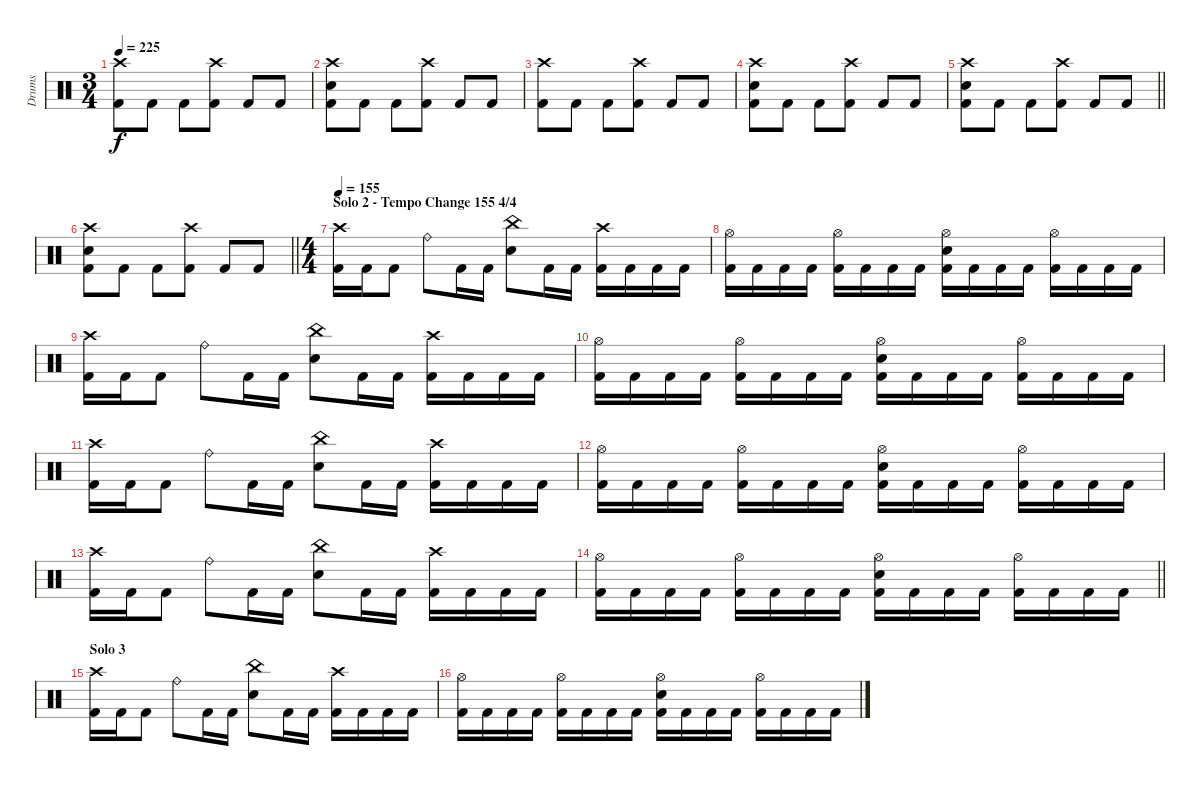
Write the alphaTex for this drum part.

\track ("Drums" "Drums") {instrument percussion}
\staff {score}
\articulation defaults
\ts (3 4)
\tempo 225
\clef neutral
\ks c
("Crash high (hit)" "Kick (hit) 2").8{dy f} "Kick (hit) 2".8 "Kick (hit) 2".8 ("Crash high (hit)" "Kick (hit) 2").8 "Kick (hit) 2".8 "Kick (hit) 2".8 |
("Crash high (hit)" "Electric Snare (hit)" "Kick (hit) 2").8 "Kick (hit) 2".8 "Kick (hit) 2".8 ("Crash high (hit)" "Kick (hit) 2").8 "Kick (hit) 2".8 "Kick (hit) 2".8 |
("Crash high (hit)" "Kick (hit) 2").8 "Kick (hit) 2".8 "Kick (hit) 2".8 ("Crash high (hit)" "Kick (hit) 2").8 "Kick (hit) 2".8 "Kick (hit) 2".8 |
("Crash high (hit)" "Electric Snare (hit)" "Kick (hit) 2").8 "Kick (hit) 2".8 "Kick (hit) 2".8 ("Crash high (hit)" "Kick (hit) 2").8 "Kick (hit) 2".8 "Kick (hit) 2".8 |
\barLineRight lightlight
("Crash high (hit)" "Electric Snare (hit)" "Kick (hit) 2").8 "Kick (hit) 2".8 "Kick (hit) 2".8 ("Crash high (hit)" "Kick (hit) 2").8 "Kick (hit) 2".8 "Kick (hit) 2".8 |
\barLineRight lightlight
("Crash high (hit)" "Electric Snare (hit)" "Kick (hit) 2").8 "Kick (hit) 2".8 "Kick (hit) 2".8 ("Crash high (hit)" "Kick (hit) 2").8 "Kick (hit) 2".8 "Kick (hit) 2".8 |
\ts (4 4)
\section ("" "Solo 2 - Tempo Change 155 4/4")
\tempo 155
("Crash high (hit)" "Kick (hit) 2").16 "Kick (hit) 2".16 "Kick (hit) 2".8 "Ride (bell)".8 "Kick (hit) 2".16 "Kick (hit) 2".16 ("China (hit)" "Electric Snare (hit)").8 "Kick (hit) 2".16 "Kick (hit) 2".16 ("Crash high (hit)" "Kick (hit) 2").16 "Kick (hit) 2".16 "Kick (hit) 2".16 "Kick (hit) 2".16 |
("Hi-Hat (open)" "Kick (hit) 2").16 "Kick (hit) 2".16 "Kick (hit) 2".16 "Kick (hit) 2".16 ("Hi-Hat (open)" "Kick (hit) 2").16 "Kick (hit) 2".16 "Kick (hit) 2".16 "Kick (hit) 2".16 ("Hi-Hat (open)" "Electric Snare (hit)" "Kick (hit) 2").16 "Kick (hit) 2".16 "Kick (hit) 2".16 "Kick (hit) 2".16 ("Hi-Hat (open)" "Kick (hit) 2").16 "Kick (hit) 2".16 "Kick (hit) 2".16 "Kick (hit) 2".16 |
("Crash high (hit)" "Kick (hit) 2").16 "Kick (hit) 2".16 "Kick (hit) 2".8 "Ride (bell)".8 "Kick (hit) 2".16 "Kick (hit) 2".16 ("China (hit)" "Electric Snare (hit)").8 "Kick (hit) 2".16 "Kick (hit) 2".16 ("Crash high (hit)" "Kick (hit) 2").16 "Kick (hit) 2".16 "Kick (hit) 2".16 "Kick (hit) 2".16 |
("Hi-Hat (open)" "Kick (hit) 2").16 "Kick (hit) 2".16 "Kick (hit) 2".16 "Kick (hit) 2".16 ("Hi-Hat (open)" "Kick (hit) 2").16 "Kick (hit) 2".16 "Kick (hit) 2".16 "Kick (hit) 2".16 ("Hi-Hat (open)" "Electric Snare (hit)" "Kick (hit) 2").16 "Kick (hit) 2".16 "Kick (hit) 2".16 "Kick (hit) 2".16 ("Hi-Hat (open)" "Kick (hit) 2").16 "Kick (hit) 2".16 "Kick (hit) 2".16 "Kick (hit) 2".16 |
("Crash high (hit)" "Kick (hit) 2").16 "Kick (hit) 2".16 "Kick (hit) 2".8 "Ride (bell)".8 "Kick (hit) 2".16 "Kick (hit) 2".16 ("China (hit)" "Electric Snare (hit)").8 "Kick (hit) 2".16 "Kick (hit) 2".16 ("Crash high (hit)" "Kick (hit) 2").16 "Kick (hit) 2".16 "Kick (hit) 2".16 "Kick (hit) 2".16 |
("Hi-Hat (open)" "Kick (hit) 2").16 "Kick (hit) 2".16 "Kick (hit) 2".16 "Kick (hit) 2".16 ("Hi-Hat (open)" "Kick (hit) 2").16 "Kick (hit) 2".16 "Kick (hit) 2".16 "Kick (hit) 2".16 ("Hi-Hat (open)" "Electric Snare (hit)" "Kick (hit) 2").16 "Kick (hit) 2".16 "Kick (hit) 2".16 "Kick (hit) 2".16 ("Hi-Hat (open)" "Kick (hit) 2").16 "Kick (hit) 2".16 "Kick (hit) 2".16 "Kick (hit) 2".16 |
("Crash high (hit)" "Kick (hit) 2").16 "Kick (hit) 2".16 "Kick (hit) 2".8 "Ride (bell)".8 "Kick (hit) 2".16 "Kick (hit) 2".16 ("China (hit)" "Electric Snare (hit)").8 "Kick (hit) 2".16 "Kick (hit) 2".16 ("Crash high (hit)" "Kick (hit) 2").16 "Kick (hit) 2".16 "Kick (hit) 2".16 "Kick (hit) 2".16 |
\barLineRight lightlight
("Hi-Hat (open)" "Kick (hit) 2").16 "Kick (hit) 2".16 "Kick (hit) 2".16 "Kick (hit) 2".16 ("Hi-Hat (open)" "Kick (hit) 2").16 "Kick (hit) 2".16 "Kick (hit) 2".16 "Kick (hit) 2".16 ("Hi-Hat (open)" "Electric Snare (hit)" "Kick (hit) 2").16 "Kick (hit) 2".16 "Kick (hit) 2".16 "Kick (hit) 2".16 ("Hi-Hat (open)" "Kick (hit) 2").16 "Kick (hit) 2".16 "Kick (hit) 2".16 "Kick (hit) 2".16 |
\section ("" "Solo 3")
("Crash high (hit)" "Kick (hit) 2").16 "Kick (hit) 2".16 "Kick (hit) 2".8 "Ride (bell)".8 "Kick (hit) 2".16 "Kick (hit) 2".16 ("China (hit)" "Electric Snare (hit)").8 "Kick (hit) 2".16 "Kick (hit) 2".16 ("Crash high (hit)" "Kick (hit) 2").16 "Kick (hit) 2".16 "Kick (hit) 2".16 "Kick (hit) 2".16 |
("Hi-Hat (open)" "Kick (hit) 2").16 "Kick (hit) 2".16 "Kick (hit) 2".16 "Kick (hit) 2".16 ("Hi-Hat (open)" "Kick (hit) 2").16 "Kick (hit) 2".16 "Kick (hit) 2".16 "Kick (hit) 2".16 ("Hi-Hat (open)" "Electric Snare (hit)" "Kick (hit) 2").16 "Kick (hit) 2".16 "Kick (hit) 2".16 "Kick (hit) 2".16 ("Hi-Hat (open)" "Kick (hit) 2").16 "Kick (hit) 2".16 "Kick (hit) 2".16 "Kick (hit) 2".16
